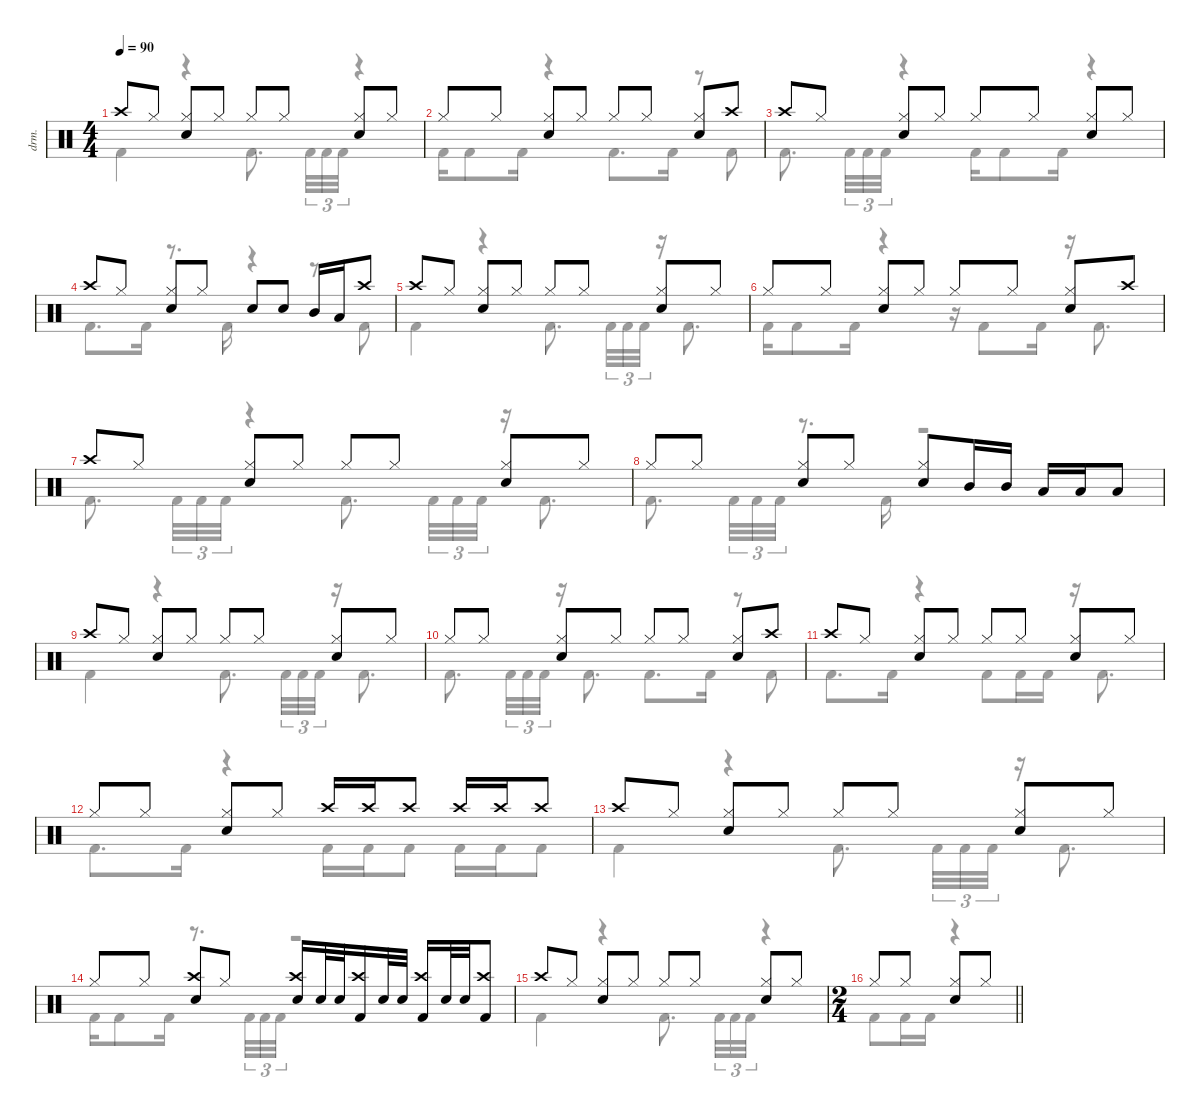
\defaultSystemsLayout 4
\hideDynamics
\bracketExtendMode nobrackets
\otherSystemsTrackNameOrientation horizontal
\track ("Lars Ulrich" "drm.") {defaultSystemsLayout 8 instrument percussion}
\staff {score}
\articulation defaults
\voice
\ts (4 4)
\tempo 90
\clef neutral
\ks aminor "Crash high (hit)".8{dy f beam Up} "Hi-Hat (closed)".8{beam Up}
("Hi-Hat (closed)" "Snare (hit) 2").8{beam Up} "Hi-Hat (closed)".8{beam Up} "Hi-Hat (closed)".8{beam Up} "Hi-Hat (closed)".8{beam Up} ("Hi-Hat (closed)" "Snare (hit) 2").8{beam Up} "Hi-Hat (closed)".8{beam Up} |
"Hi-Hat (closed)".8{beam Up} "Hi-Hat (closed)".8{beam Up} ("Hi-Hat (closed)" "Snare (hit) 2").8{beam Up} "Hi-Hat (closed)".8{beam Up} "Hi-Hat (closed)".8{beam Up} "Hi-Hat (closed)".8{beam Up} ("Hi-Hat (closed)" "Snare (hit) 2").8{beam Up} "Crash high (hit)".8{beam Up} |
"Crash high (hit)".8{beam Up} "Hi-Hat (closed)".8{beam Up} ("Hi-Hat (closed)" "Snare (hit) 2").8{beam Up} "Hi-Hat (closed)".8{beam Up} "Hi-Hat (closed)".8{beam Up} "Hi-Hat (closed)".8{beam Up} ("Hi-Hat (closed)" "Snare (hit) 2").8{beam Up} "Hi-Hat (closed)".8{beam Up} |
"Crash high (hit)".8{beam Up} "Hi-Hat (closed)".8{beam Up} ("Hi-Hat (closed)" "Snare (hit) 2").8{beam Up} "Hi-Hat (closed)".8{beam Up} "Snare (hit) 2".8{beam Up} "Snare (hit) 2".8{beam Up} "Mid Tom (hit)".16{beam Up} "Low Tom (hit)".16{beam Up} "Crash high (hit)".8{beam Up} |
"Crash high (hit)".8{beam Up} "Hi-Hat (closed)".8{beam Up} ("Hi-Hat (closed)" "Snare (hit) 2").8{beam Up} "Hi-Hat (closed)".8{beam Up} "Hi-Hat (closed)".8{beam Up} "Hi-Hat (closed)".8{beam Up} ("Hi-Hat (closed)" "Snare (hit) 2").8{beam Up} "Hi-Hat (closed)".8{beam Up} |
"Hi-Hat (closed)".8{beam Up} "Hi-Hat (closed)".8{beam Up} ("Hi-Hat (closed)" "Snare (hit) 2").8{beam Up} "Hi-Hat (closed)".8{beam Up} "Hi-Hat (closed)".8{beam Up} "Hi-Hat (closed)".8{beam Up} ("Hi-Hat (closed)" "Snare (hit) 2").8{beam Up} "Crash high (hit)".8{beam Up} |
"Crash high (hit)".8{beam Up} "Hi-Hat (closed)".8{beam Up} ("Hi-Hat (closed)" "Snare (hit) 2").8{beam Up} "Hi-Hat (closed)".8{beam Up} "Hi-Hat (closed)".8{beam Up} "Hi-Hat (closed)".8{beam Up} ("Hi-Hat (closed)" "Snare (hit) 2").8{beam Up} "Hi-Hat (closed)".8{beam Up} |
"Hi-Hat (closed)".8{beam Up} "Hi-Hat (closed)".8{beam Up} ("Hi-Hat (closed)" "Snare (hit) 2").8{beam Up} "Hi-Hat (closed)".8{beam Up} ("Hi-Hat (closed)" "Snare (hit) 2").8{beam Up} "Mid Tom (hit)".16{beam Up} "Mid Tom (hit)".16{beam Up} "Low Tom (hit)".16{beam Up} "Low Tom (hit)".16{beam Up} "Low Tom (hit)".8{beam Up} |
"Crash high (hit)".8{beam Up} "Hi-Hat (closed)".8{beam Up} ("Hi-Hat (closed)" "Snare (hit) 2").8{beam Up} "Hi-Hat (closed)".8{beam Up} "Hi-Hat (closed)".8{beam Up} "Hi-Hat (closed)".8{beam Up} ("Hi-Hat (closed)" "Snare (hit) 2").8{beam Up} "Hi-Hat (closed)".8{beam Up} |
"Hi-Hat (closed)".8{beam Up} "Hi-Hat (closed)".8{beam Up} ("Hi-Hat (closed)" "Snare (hit) 2").8{beam Up} "Hi-Hat (closed)".8{beam Up} "Hi-Hat (closed)".8{beam Up} "Hi-Hat (closed)".8{beam Up} ("Hi-Hat (closed)" "Snare (hit) 2").8{beam Up} "Crash high (hit)".8{beam Up} |
"Crash high (hit)".8{beam Up} "Hi-Hat (closed)".8{beam Up} ("Hi-Hat (closed)" "Snare (hit) 2").8{beam Up} "Hi-Hat (closed)".8{beam Up} "Hi-Hat (closed)".8{beam Up} "Hi-Hat (closed)".8{beam Up} ("Hi-Hat (closed)" "Snare (hit) 2").8{beam Up} "Hi-Hat (closed)".8{beam Up} |
"Hi-Hat (closed)".8{beam Up} "Hi-Hat (closed)".8{beam Up} ("Hi-Hat (closed)" "Snare (hit) 2").8{beam Up} "Hi-Hat (closed)".8{beam Up} "Crash high (hit)".16{beam Up} "Crash high (hit)".16{beam Up} "Crash high (hit)".8{beam Up} "Crash high (hit)".16{beam Up} "Crash high (hit)".16{beam Up} "Crash high (hit)".8{beam Up} |
"Crash high (hit)".8{beam Up} "Hi-Hat (closed)".8{beam Up} ("Hi-Hat (closed)" "Snare (hit) 2").8{beam Up} "Hi-Hat (closed)".8{beam Up} "Hi-Hat (closed)".8{beam Up} "Hi-Hat (closed)".8{beam Up} ("Hi-Hat (closed)" "Snare (hit) 2").8{beam Up} "Hi-Hat (closed)".8{beam Up} |
"Hi-Hat (closed)".8{beam Up} "Hi-Hat (closed)".8{beam Up} ("Crash high (hit)" "Snare (hit) 2").8{beam Up} "Hi-Hat (closed)".8{beam Up} ("Crash high (hit)" "Snare (hit) 2").16{beam Up} "Snare (hit) 2".32{beam Up} "Snare (hit) 2".32{beam Up} ("Crash high (hit)" "Kick (hit) 2").16{beam Up} "Snare (hit) 2".32{beam Up} "Snare (hit) 2".32{beam Up} ("Crash high (hit)" "Kick (hit) 2").16{beam Up} "Snare (hit) 2".32{beam Up} "Snare (hit) 2".32{beam Up} ("Crash high (hit)" "Kick (hit) 2").8{beam Up} |
"Crash high (hit)".8{beam Up} "Hi-Hat (closed)".8{beam Up} ("Hi-Hat (closed)" "Snare (hit) 2").8{beam Up} "Hi-Hat (closed)".8{beam Up} "Hi-Hat (closed)".8{beam Up} "Hi-Hat (closed)".8{beam Up} ("Hi-Hat (closed)" "Snare (hit) 2").8{beam Up} "Hi-Hat (closed)".8{beam Up} |
\ts (2 4)
\beaming (8 2 2)
\barLineRight lightlight "Hi-Hat (closed)".8{beam Up} "Hi-Hat (closed)".8{beam Up}
("Hi-Hat (closed)" "Snare (hit) 2").8{beam Up} "Hi-Hat (closed)".8{beam Up}
\voice
\clef neutral
\ottava regular
\simile none
\ks aminor "Kick (hit) 2".4{dy f beam Down}
r.4{beam Down} "Kick (hit) 2".8{d beam Down} "Kick (hit) 2".32{tu (3 2) beam Down} "Kick (hit) 2".32{tu (3 2) beam Down} "Kick (hit) 2".32{tu (3 2) beam Down} r.4{beam Down} |
"Kick (hit) 2".16{beam Down} "Kick (hit) 2".8{beam Down} "Kick (hit) 2".16{beam Down} r.4{beam Down} "Kick (hit) 2".8{d beam Down} "Kick (hit) 2".16{beam Down} r.8{beam Down} "Kick (hit) 2".8{beam Down} |
"Kick (hit) 2".8{d beam Down} "Kick (hit) 2".32{tu (3 2) beam Down} "Kick (hit) 2".32{tu (3 2) beam Down} "Kick (hit) 2".32{tu (3 2) beam Down} r.4{beam Down} "Kick (hit) 2".16{beam Down} "Kick (hit) 2".8{beam Down} "Kick (hit) 2".16{beam Down} r.4{beam Down} |
"Kick (hit) 2".8{d beam Down} "Kick (hit) 2".16{beam Down} r.8{d beam Down} "Kick (hit) 2".16{beam Down} r.4{beam Down} r.8{beam Down} "Kick (hit) 2".8{beam Down} |
"Kick (hit) 2".4{beam Down} r.4{beam Down} "Kick (hit) 2".8{d beam Down} "Kick (hit) 2".32{tu (3 2) beam Down} "Kick (hit) 2".32{tu (3 2) beam Down} "Kick (hit) 2".32{tu (3 2) beam Down} r.16{beam Down} "Kick (hit) 2".8{d beam Down} |
"Kick (hit) 2".16{beam Down} "Kick (hit) 2".8{beam Down} "Kick (hit) 2".16{beam Down} r.4{beam Down} r.16{beam Down} "Kick (hit) 2".8{beam Down} "Kick (hit) 2".16{beam Down} r.16{beam Down} "Kick (hit) 2".8{d beam Down} |
"Kick (hit) 2".8{d beam Down} "Kick (hit) 2".32{tu (3 2) beam Down} "Kick (hit) 2".32{tu (3 2) beam Down} "Kick (hit) 2".32{tu (3 2) beam Down} r.4{beam Down} "Kick (hit) 2".8{d beam Down} "Kick (hit) 2".32{tu (3 2) beam Down} "Kick (hit) 2".32{tu (3 2) beam Down} "Kick (hit) 2".32{tu (3 2) beam Down} r.16{beam Down} "Kick (hit) 2".8{d beam Down} |
"Kick (hit) 2".8{d beam Down} "Kick (hit) 2".32{tu (3 2) beam Down} "Kick (hit) 2".32{tu (3 2) beam Down} "Kick (hit) 2".32{tu (3 2) beam Down} r.8{d beam Down} "Kick (hit) 2".16{beam Down} r.2{beam Down} |
"Kick (hit) 2".4{beam Down} r.4{beam Down} "Kick (hit) 2".8{d beam Down} "Kick (hit) 2".32{tu (3 2) beam Down} "Kick (hit) 2".32{tu (3 2) beam Down} "Kick (hit) 2".32{tu (3 2) beam Down} r.16{beam Down} "Kick (hit) 2".8{d beam Down} |
"Kick (hit) 2".8{d beam Down} "Kick (hit) 2".32{tu (3 2) beam Down} "Kick (hit) 2".32{tu (3 2) beam Down} "Kick (hit) 2".32{tu (3 2) beam Down} r.16{beam Down} "Kick (hit) 2".8{d beam Down} "Kick (hit) 2".8{d beam Down} "Kick (hit) 2".16{beam Down} r.8{beam Down} "Kick (hit) 2".8{beam Down} |
"Kick (hit) 2".8{d beam Down} "Kick (hit) 2".16{beam Down} r.4{beam Down} "Kick (hit) 2".8{beam Down} "Kick (hit) 2".16{beam Down} "Kick (hit) 2".16{beam Down} r.16{beam Down} "Kick (hit) 2".8{d beam Down} |
"Kick (hit) 2".8{d beam Down} "Kick (hit) 2".16{beam Down} r.4{beam Down} "Kick (hit) 2".16{beam Down} "Kick (hit) 2".16{beam Down} "Kick (hit) 2".8{beam Down} "Kick (hit) 2".16{beam Down} "Kick (hit) 2".16{beam Down} "Kick (hit) 2".8{beam Down} |
"Kick (hit) 2".4{beam Down} r.4{beam Down} "Kick (hit) 2".8{d beam Down} "Kick (hit) 2".32{tu (3 2) beam Down} "Kick (hit) 2".32{tu (3 2) beam Down} "Kick (hit) 2".32{tu (3 2) beam Down} r.16{beam Down} "Kick (hit) 2".8{d beam Down} |
"Kick (hit) 2".16{beam Down} "Kick (hit) 2".8{beam Down} "Kick (hit) 2".16{beam Down} r.8{d beam Down} "Kick (hit) 2".32{tu (3 2) beam Down} "Kick (hit) 2".32{tu (3 2) beam Down} "Kick (hit) 2".32{tu (3 2) beam Down} r.2{beam Down} |
"Kick (hit) 2".4{beam Down} r.4{beam Down} "Kick (hit) 2".8{d beam Down} "Kick (hit) 2".32{tu (3 2) beam Down} "Kick (hit) 2".32{tu (3 2) beam Down} "Kick (hit) 2".32{tu (3 2) beam Down} r.4{beam Down} |
\barLineRight lightlight "Kick (hit) 2".8{beam Down} "Kick (hit) 2".16{beam Down} "Kick (hit) 2".16{beam Down}
r.4{beam Down}
